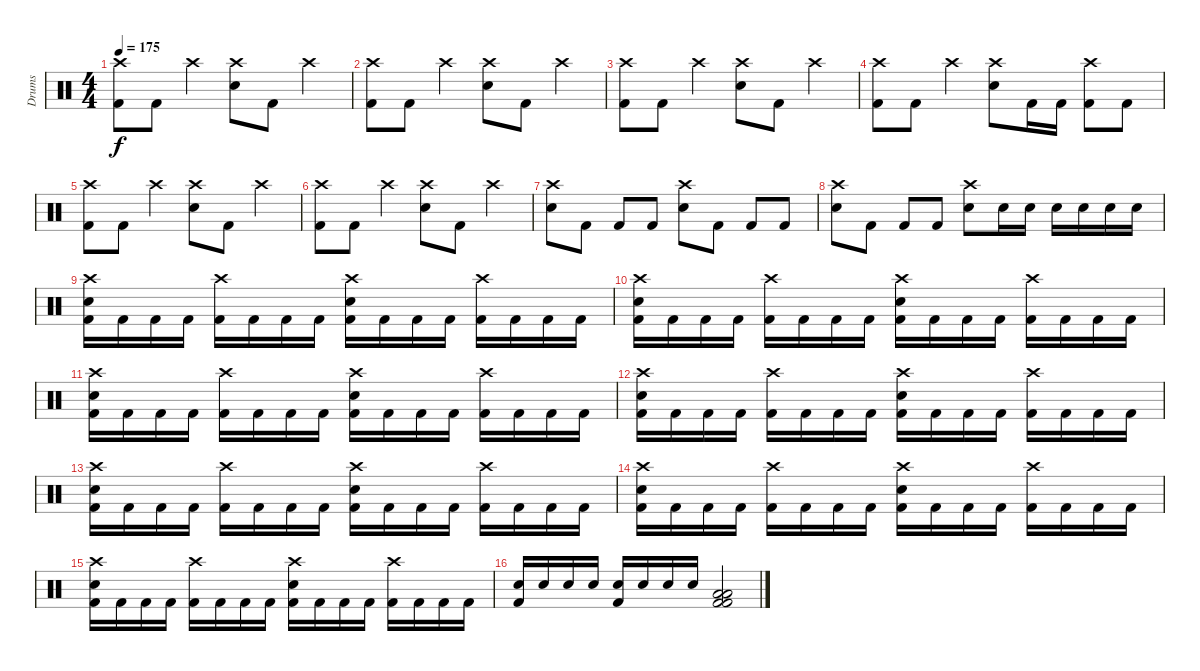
\track ("Drums" "Drums") {instrument percussion}
\staff {score}
\articulation defaults
\ts (4 4)
\tempo 175
\clef neutral
\ks c
("Crash high (hit)" "Kick (hit) 2").8{dy f} "Kick (hit) 2".8 "Crash high (hit)".4 ("Crash high (hit)" "Snare (hit) 2").8 "Kick (hit) 2".8 "Crash high (hit)".4 |
("Crash high (hit)" "Kick (hit) 2").8 "Kick (hit) 2".8 "Crash high (hit)".4 ("Crash high (hit)" "Snare (hit) 2").8 "Kick (hit) 2".8 "Crash high (hit)".4 |
("Crash high (hit)" "Kick (hit) 2").8 "Kick (hit) 2".8 "Crash high (hit)".4 ("Crash high (hit)" "Snare (hit) 2").8 "Kick (hit) 2".8 "Crash high (hit)".4 |
("Crash high (hit)" "Kick (hit) 2").8 "Kick (hit) 2".8 "Crash high (hit)".4 ("Crash high (hit)" "Snare (hit) 2").8 "Kick (hit) 2".16 "Kick (hit) 2".16 ("Crash high (hit)" "Kick (hit) 2").8 "Kick (hit) 2".8 |
("Crash high (hit)" "Kick (hit) 2").8 "Kick (hit) 2".8 "Crash high (hit)".4 ("Crash high (hit)" "Snare (hit) 2").8 "Kick (hit) 2".8 "Crash high (hit)".4 |
("Crash high (hit)" "Kick (hit) 2").8 "Kick (hit) 2".8 "Crash high (hit)".4 ("Crash high (hit)" "Snare (hit) 2").8 "Kick (hit) 2".8 "Crash high (hit)".4 |
("Crash high (hit)" "Snare (hit) 2").8 "Kick (hit) 2".8 "Kick (hit) 2".8 "Kick (hit) 2".8 ("Crash high (hit)" "Snare (hit) 2").8 "Kick (hit) 2".8 "Kick (hit) 2".8 "Kick (hit) 2".8 |
("Crash high (hit)" "Snare (hit) 2").8 "Kick (hit) 2".8 "Kick (hit) 2".8 "Kick (hit) 2".8 ("Crash high (hit)" "Snare (hit) 2").8 "Snare (hit) 2".16 "Snare (hit) 2".16 "Snare (hit) 2".16 "Snare (hit) 2".16 "Snare (hit) 2".16 "Snare (hit) 2".16 |
("Crash high (hit)" "Snare (hit) 2" "Kick (hit) 2").16 "Kick (hit) 2".16 "Kick (hit) 2".16 "Kick (hit) 2".16 ("Crash high (hit)" "Kick (hit) 2").16 "Kick (hit) 2".16 "Kick (hit) 2".16 "Kick (hit) 2".16 ("Crash high (hit)" "Snare (hit) 2" "Kick (hit) 2").16 "Kick (hit) 2".16 "Kick (hit) 2".16 "Kick (hit) 2".16 ("Crash high (hit)" "Kick (hit) 2").16 "Kick (hit) 2".16 "Kick (hit) 2".16 "Kick (hit) 2".16 |
("Crash high (hit)" "Snare (hit) 2" "Kick (hit) 2").16 "Kick (hit) 2".16 "Kick (hit) 2".16 "Kick (hit) 2".16 ("Crash high (hit)" "Kick (hit) 2").16 "Kick (hit) 2".16 "Kick (hit) 2".16 "Kick (hit) 2".16 ("Crash high (hit)" "Snare (hit) 2" "Kick (hit) 2").16 "Kick (hit) 2".16 "Kick (hit) 2".16 "Kick (hit) 2".16 ("Crash high (hit)" "Kick (hit) 2").16 "Kick (hit) 2".16 "Kick (hit) 2".16 "Kick (hit) 2".16 |
("Crash high (hit)" "Snare (hit) 2" "Kick (hit) 2").16 "Kick (hit) 2".16 "Kick (hit) 2".16 "Kick (hit) 2".16 ("Crash high (hit)" "Kick (hit) 2").16 "Kick (hit) 2".16 "Kick (hit) 2".16 "Kick (hit) 2".16 ("Crash high (hit)" "Snare (hit) 2" "Kick (hit) 2").16 "Kick (hit) 2".16 "Kick (hit) 2".16 "Kick (hit) 2".16 ("Crash high (hit)" "Kick (hit) 2").16 "Kick (hit) 2".16 "Kick (hit) 2".16 "Kick (hit) 2".16 |
("Crash high (hit)" "Snare (hit) 2" "Kick (hit) 2").16 "Kick (hit) 2".16 "Kick (hit) 2".16 "Kick (hit) 2".16 ("Crash high (hit)" "Kick (hit) 2").16 "Kick (hit) 2".16 "Kick (hit) 2".16 "Kick (hit) 2".16 ("Crash high (hit)" "Snare (hit) 2" "Kick (hit) 2").16 "Kick (hit) 2".16 "Kick (hit) 2".16 "Kick (hit) 2".16 ("Crash high (hit)" "Kick (hit) 2").16 "Kick (hit) 2".16 "Kick (hit) 2".16 "Kick (hit) 2".16 |
("Crash high (hit)" "Snare (hit) 2" "Kick (hit) 2").16 "Kick (hit) 2".16 "Kick (hit) 2".16 "Kick (hit) 2".16 ("Crash high (hit)" "Kick (hit) 2").16 "Kick (hit) 2".16 "Kick (hit) 2".16 "Kick (hit) 2".16 ("Crash high (hit)" "Snare (hit) 2" "Kick (hit) 2").16 "Kick (hit) 2".16 "Kick (hit) 2".16 "Kick (hit) 2".16 ("Crash high (hit)" "Kick (hit) 2").16 "Kick (hit) 2".16 "Kick (hit) 2".16 "Kick (hit) 2".16 |
("Crash high (hit)" "Snare (hit) 2" "Kick (hit) 2").16 "Kick (hit) 2".16 "Kick (hit) 2".16 "Kick (hit) 2".16 ("Crash high (hit)" "Kick (hit) 2").16 "Kick (hit) 2".16 "Kick (hit) 2".16 "Kick (hit) 2".16 ("Crash high (hit)" "Snare (hit) 2" "Kick (hit) 2").16 "Kick (hit) 2".16 "Kick (hit) 2".16 "Kick (hit) 2".16 ("Crash high (hit)" "Kick (hit) 2").16 "Kick (hit) 2".16 "Kick (hit) 2".16 "Kick (hit) 2".16 |
("Crash high (hit)" "Snare (hit) 2" "Kick (hit) 2").16 "Kick (hit) 2".16 "Kick (hit) 2".16 "Kick (hit) 2".16 ("Crash high (hit)" "Kick (hit) 2").16 "Kick (hit) 2".16 "Kick (hit) 2".16 "Kick (hit) 2".16 ("Crash high (hit)" "Snare (hit) 2" "Kick (hit) 2").16 "Kick (hit) 2".16 "Kick (hit) 2".16 "Kick (hit) 2".16 ("Crash high (hit)" "Kick (hit) 2").16 "Kick (hit) 2".16 "Kick (hit) 2".16 "Kick (hit) 2".16 |
("Kick (hit) 2" "Snare (hit) 2").16 "Snare (hit) 2".16 "Snare (hit) 2".16 "Snare (hit) 2".16 ("Kick (hit) 2" "Snare (hit) 2").16 "Snare (hit) 2".16 "Snare (hit) 2".16 "Snare (hit) 2".16 ("Low Floor Tom (hit)" "Low Floor Tom (hit)" "Kick (hit) 2" "Kick (hit) 2").2
